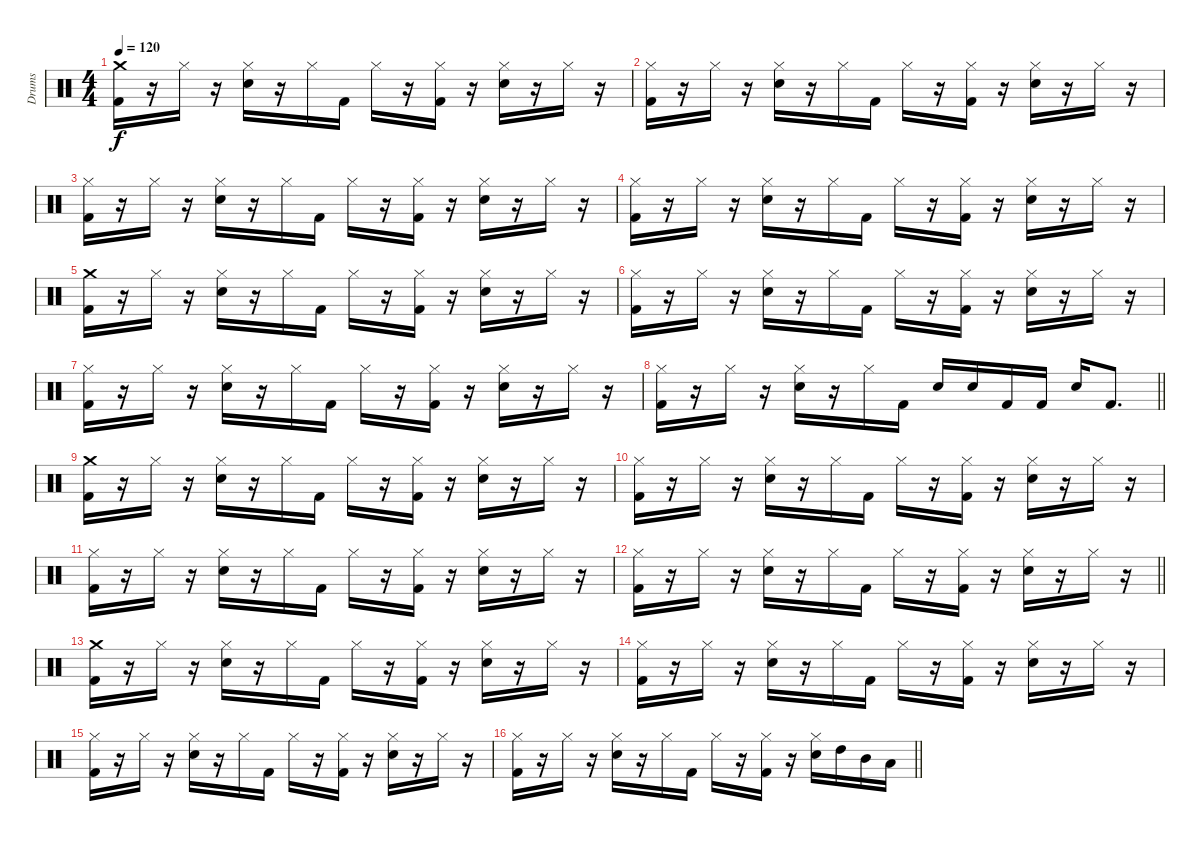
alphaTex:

\track ("Drums" "Drums") {instrument percussion}
\staff {score}
\articulation defaults
\ts (4 4)
\tempo 120
\clef neutral
\ks c
("Crash medium (hit)" "Kick (hit) 2").16{dy f} r.16 "Hi-Hat (closed)".16 r.16 ("Hi-Hat (closed)" "Snare (hit) 2").16 r.16 "Hi-Hat (closed)".16 "Kick (hit) 2".16 "Hi-Hat (closed)".16 r.16 ("Hi-Hat (closed)" "Kick (hit) 2").16 r.16 ("Hi-Hat (closed)" "Snare (hit) 2").16 r.16 "Hi-Hat (closed)".16 r.16 |
("Hi-Hat (closed)" "Kick (hit) 2").16 r.16 "Hi-Hat (closed)".16 r.16 ("Hi-Hat (closed)" "Snare (hit) 2").16 r.16 "Hi-Hat (closed)".16 "Kick (hit) 2".16 "Hi-Hat (closed)".16 r.16 ("Hi-Hat (closed)" "Kick (hit) 2").16 r.16 ("Hi-Hat (closed)" "Snare (hit) 2").16 r.16 "Hi-Hat (closed)".16 r.16 |
("Hi-Hat (closed)" "Kick (hit) 2").16 r.16 "Hi-Hat (closed)".16 r.16 ("Hi-Hat (closed)" "Snare (hit) 2").16 r.16 "Hi-Hat (closed)".16 "Kick (hit) 2".16 "Hi-Hat (closed)".16 r.16 ("Hi-Hat (closed)" "Kick (hit) 2").16 r.16 ("Hi-Hat (closed)" "Snare (hit) 2").16 r.16 "Hi-Hat (closed)".16 r.16 |
("Hi-Hat (closed)" "Kick (hit) 2").16 r.16 "Hi-Hat (closed)".16 r.16 ("Hi-Hat (closed)" "Snare (hit) 2").16 r.16 "Hi-Hat (closed)".16 "Kick (hit) 2".16 "Hi-Hat (closed)".16 r.16 ("Hi-Hat (closed)" "Kick (hit) 2").16 r.16 ("Hi-Hat (closed)" "Snare (hit) 2").16 r.16 "Hi-Hat (closed)".16 r.16 |
("Crash medium (hit)" "Kick (hit) 2").16 r.16 "Hi-Hat (closed)".16 r.16 ("Hi-Hat (closed)" "Snare (hit) 2").16 r.16 "Hi-Hat (closed)".16 "Kick (hit) 2".16 "Hi-Hat (closed)".16 r.16 ("Hi-Hat (closed)" "Kick (hit) 2").16 r.16 ("Hi-Hat (closed)" "Snare (hit) 2").16 r.16 "Hi-Hat (closed)".16 r.16 |
("Hi-Hat (closed)" "Kick (hit) 2").16 r.16 "Hi-Hat (closed)".16 r.16 ("Hi-Hat (closed)" "Snare (hit) 2").16 r.16 "Hi-Hat (closed)".16 "Kick (hit) 2".16 "Hi-Hat (closed)".16 r.16 ("Hi-Hat (closed)" "Kick (hit) 2").16 r.16 ("Hi-Hat (closed)" "Snare (hit) 2").16 r.16 "Hi-Hat (closed)".16 r.16 |
("Hi-Hat (closed)" "Kick (hit) 2").16 r.16 "Hi-Hat (closed)".16 r.16 ("Hi-Hat (closed)" "Snare (hit) 2").16 r.16 "Hi-Hat (closed)".16 "Kick (hit) 2".16 "Hi-Hat (closed)".16 r.16 ("Hi-Hat (closed)" "Kick (hit) 2").16 r.16 ("Hi-Hat (closed)" "Snare (hit) 2").16 r.16 "Hi-Hat (closed)".16 r.16 |
\barLineRight lightlight
("Hi-Hat (closed)" "Kick (hit) 2").16 r.16 "Hi-Hat (closed)".16 r.16 ("Hi-Hat (closed)" "Snare (hit) 2").16 r.16 "Hi-Hat (closed)".16 "Kick (hit) 2".16 "Snare (hit) 2".16 "Snare (hit) 2".16 "Kick (hit) 2".16 "Kick (hit) 2".16 "Snare (hit) 2".16 "Kick (hit) 2".8{d} |
("Crash medium (hit)" "Kick (hit) 2").16 r.16 "Hi-Hat (closed)".16 r.16 ("Hi-Hat (closed)" "Snare (hit) 2").16 r.16 "Hi-Hat (closed)".16 "Kick (hit) 2".16 "Hi-Hat (closed)".16 r.16 ("Hi-Hat (closed)" "Kick (hit) 2").16 r.16 ("Hi-Hat (closed)" "Snare (hit) 2").16 r.16 "Hi-Hat (closed)".16 r.16 |
("Hi-Hat (closed)" "Kick (hit) 2").16 r.16 "Hi-Hat (closed)".16 r.16 ("Hi-Hat (closed)" "Snare (hit) 2").16 r.16 "Hi-Hat (closed)".16 "Kick (hit) 2".16 "Hi-Hat (closed)".16 r.16 ("Hi-Hat (closed)" "Kick (hit) 2").16 r.16 ("Hi-Hat (closed)" "Snare (hit) 2").16 r.16 "Hi-Hat (closed)".16 r.16 |
("Hi-Hat (closed)" "Kick (hit) 2").16 r.16 "Hi-Hat (closed)".16 r.16 ("Hi-Hat (closed)" "Snare (hit) 2").16 r.16 "Hi-Hat (closed)".16 "Kick (hit) 2".16 "Hi-Hat (closed)".16 r.16 ("Hi-Hat (closed)" "Kick (hit) 2").16 r.16 ("Hi-Hat (closed)" "Snare (hit) 2").16 r.16 "Hi-Hat (closed)".16 r.16 |
\barLineRight lightlight
("Hi-Hat (closed)" "Kick (hit) 2").16 r.16 "Hi-Hat (closed)".16 r.16 ("Hi-Hat (closed)" "Snare (hit) 2").16 r.16 "Hi-Hat (closed)".16 "Kick (hit) 2".16 "Hi-Hat (closed)".16 r.16 ("Hi-Hat (closed)" "Kick (hit) 2").16 r.16 ("Hi-Hat (closed)" "Snare (hit) 2").16 r.16 "Hi-Hat (closed)".16 r.16 |
("Crash medium (hit)" "Kick (hit) 2").16 r.16 "Hi-Hat (closed)".16 r.16 ("Hi-Hat (closed)" "Snare (hit) 2").16 r.16 "Hi-Hat (closed)".16 "Kick (hit) 2".16 "Hi-Hat (closed)".16 r.16 ("Hi-Hat (closed)" "Kick (hit) 2").16 r.16 ("Hi-Hat (closed)" "Snare (hit) 2").16 r.16 "Hi-Hat (closed)".16 r.16 |
("Hi-Hat (closed)" "Kick (hit) 2").16 r.16 "Hi-Hat (closed)".16 r.16 ("Hi-Hat (closed)" "Snare (hit) 2").16 r.16 "Hi-Hat (closed)".16 "Kick (hit) 2".16 "Hi-Hat (closed)".16 r.16 ("Hi-Hat (closed)" "Kick (hit) 2").16 r.16 ("Hi-Hat (closed)" "Snare (hit) 2").16 r.16 "Hi-Hat (closed)".16 r.16 |
("Hi-Hat (closed)" "Kick (hit) 2").16 r.16 "Hi-Hat (closed)".16 r.16 ("Hi-Hat (closed)" "Snare (hit) 2").16 r.16 "Hi-Hat (closed)".16 "Kick (hit) 2".16 "Hi-Hat (closed)".16 r.16 ("Hi-Hat (closed)" "Kick (hit) 2").16 r.16 ("Hi-Hat (closed)" "Snare (hit) 2").16 r.16 "Hi-Hat (closed)".16 r.16 |
\barLineRight lightlight
("Hi-Hat (closed)" "Kick (hit) 2").16 r.16 "Hi-Hat (closed)".16 r.16 ("Hi-Hat (closed)" "Snare (hit) 2").16 r.16 "Hi-Hat (closed)".16 "Kick (hit) 2".16 "Hi-Hat (closed)".16 r.16 ("Hi-Hat (closed)" "Kick (hit) 2").16 r.16 ("Hi-Hat (closed)" "Snare (hit) 2").16 "High Tom (hit)".16 "Mid Tom (hit)".16 "Low Tom (hit)".16
